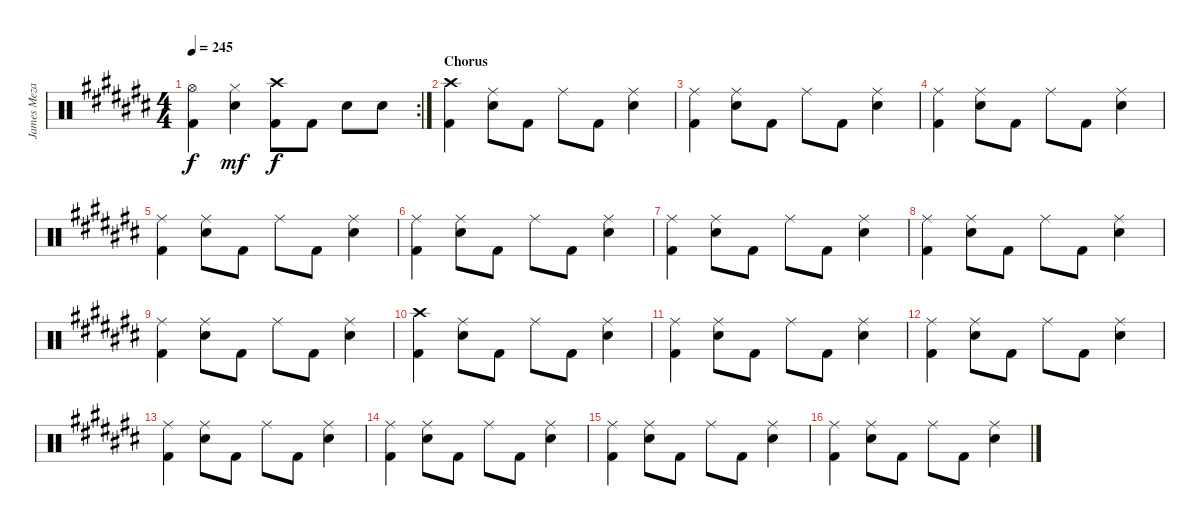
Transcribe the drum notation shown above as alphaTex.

\track ("James Meza" "James Meza") {instrument percussion}
\staff {score}
\articulation defaults
\rc 2
\ts (4 4)
\tempo 245
\clef neutral
\ks c#
("Hi-Hat (open)" "Kick (hit) 2").4{dy f} ("Hi-Hat (closed)" "Snare (hit) 2").4{dy mf volume 16} ("Crash high (hit)" "Kick (hit) 2").8{dy f volume 13} "Kick (hit) 2".8 "Snare (hit) 2".8 "Snare (hit) 2".8 |
\section ("" "Chorus")
("Crash high (hit)" "Kick (hit) 2").4 ("Ride (middle)" "Snare (hit) 2").8 "Kick (hit) 2".8 "Ride (middle)".8 "Kick (hit) 2".8 ("Ride (middle)" "Snare (hit) 2").4 |
("Ride (middle)" "Kick (hit) 2").4 ("Ride (middle)" "Snare (hit) 2").8 "Kick (hit) 2".8 "Ride (middle)".8 "Kick (hit) 2".8 ("Ride (middle)" "Snare (hit) 2").4 |
("Ride (middle)" "Kick (hit) 2").4 ("Ride (middle)" "Snare (hit) 2").8 "Kick (hit) 2".8 "Ride (middle)".8 "Kick (hit) 2".8 ("Ride (middle)" "Snare (hit) 2").4 |
("Ride (middle)" "Kick (hit) 2").4 ("Ride (middle)" "Snare (hit) 2").8 "Kick (hit) 2".8 "Ride (middle)".8 "Kick (hit) 2".8 ("Ride (middle)" "Snare (hit) 2").4 |
("Ride (middle)" "Kick (hit) 2").4 ("Ride (middle)" "Snare (hit) 2").8 "Kick (hit) 2".8 "Ride (middle)".8 "Kick (hit) 2".8 ("Ride (middle)" "Snare (hit) 2").4 |
("Ride (middle)" "Kick (hit) 2").4 ("Ride (middle)" "Snare (hit) 2").8 "Kick (hit) 2".8 "Ride (middle)".8 "Kick (hit) 2".8 ("Ride (middle)" "Snare (hit) 2").4 |
("Ride (middle)" "Kick (hit) 2").4 ("Ride (middle)" "Snare (hit) 2").8 "Kick (hit) 2".8 "Ride (middle)".8 "Kick (hit) 2".8 ("Ride (middle)" "Snare (hit) 2").4 |
("Ride (middle)" "Kick (hit) 2").4 ("Ride (middle)" "Snare (hit) 2").8 "Kick (hit) 2".8 "Ride (middle)".8 "Kick (hit) 2".8 ("Ride (middle)" "Snare (hit) 2").4 |
("Crash high (hit)" "Kick (hit) 2").4 ("Ride (middle)" "Snare (hit) 2").8 "Kick (hit) 2".8 "Ride (middle)".8 "Kick (hit) 2".8 ("Ride (middle)" "Snare (hit) 2").4 |
("Ride (middle)" "Kick (hit) 2").4 ("Ride (middle)" "Snare (hit) 2").8 "Kick (hit) 2".8 "Ride (middle)".8 "Kick (hit) 2".8 ("Ride (middle)" "Snare (hit) 2").4 |
("Ride (middle)" "Kick (hit) 2").4 ("Ride (middle)" "Snare (hit) 2").8 "Kick (hit) 2".8 "Ride (middle)".8 "Kick (hit) 2".8 ("Ride (middle)" "Snare (hit) 2").4 |
("Ride (middle)" "Kick (hit) 2").4 ("Ride (middle)" "Snare (hit) 2").8 "Kick (hit) 2".8 "Ride (middle)".8 "Kick (hit) 2".8 ("Ride (middle)" "Snare (hit) 2").4 |
("Ride (middle)" "Kick (hit) 2").4 ("Ride (middle)" "Snare (hit) 2").8 "Kick (hit) 2".8 "Ride (middle)".8 "Kick (hit) 2".8 ("Ride (middle)" "Snare (hit) 2").4 |
("Ride (middle)" "Kick (hit) 2").4 ("Ride (middle)" "Snare (hit) 2").8 "Kick (hit) 2".8 "Ride (middle)".8 "Kick (hit) 2".8 ("Ride (middle)" "Snare (hit) 2").4 |
("Ride (middle)" "Kick (hit) 2").4 ("Ride (middle)" "Snare (hit) 2").8 "Kick (hit) 2".8 "Ride (middle)".8 "Kick (hit) 2".8 ("Ride (middle)" "Snare (hit) 2").4
